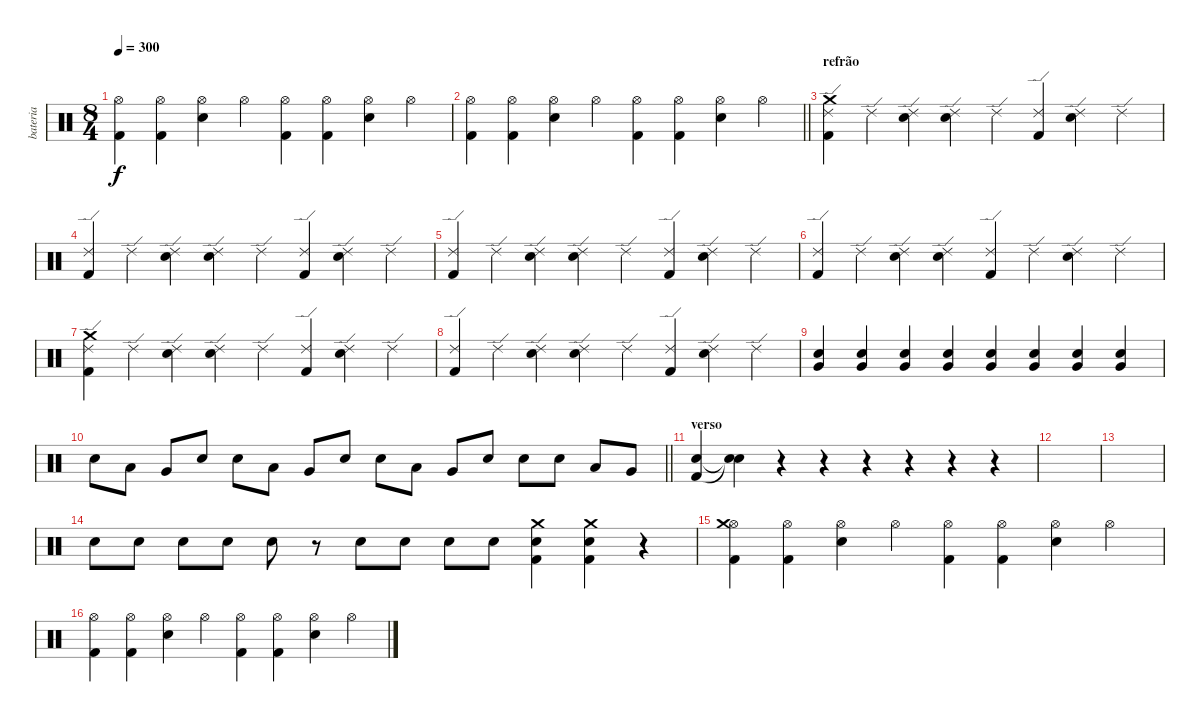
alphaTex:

\track ("bateria" "bateria") {instrument percussion}
\staff {score}
\articulation defaults
\ts (8 4)
\tempo 300
\clef neutral
\ks c
("Hi-Hat (open)" "Kick (hit) 2").4{dy f} ("Hi-Hat (open)" "Kick (hit) 2").4 ("Hi-Hat (open)" "Electric Snare (hit)").4 "Hi-Hat (open)".4 ("Hi-Hat (open)" "Kick (hit) 2").4 ("Hi-Hat (open)" "Kick (hit) 2").4 ("Hi-Hat (open)" "Electric Snare (hit)").4 "Hi-Hat (open)".4 |
\barLineRight lightlight
("Hi-Hat (open)" "Kick (hit) 2").4 ("Hi-Hat (open)" "Kick (hit) 2").4 ("Hi-Hat (open)" "Electric Snare (hit)").4 "Hi-Hat (open)".4 ("Hi-Hat (open)" "Kick (hit) 2").4 ("Hi-Hat (open)" "Kick (hit) 2").4 ("Hi-Hat (open)" "Electric Snare (hit)").4 "Hi-Hat (open)".4 |
\section ("" "refrão")
("Ride (edge) 2" "Kick (hit) 2" "Crash medium (hit)").4 "Ride (edge) 2".4 ("Ride (edge) 2" "Electric Snare (hit)").4 ("Ride (edge) 2" "Electric Snare (hit)").4 "Ride (edge) 2".4 ("Ride (edge) 2" "Kick (hit) 2").4 ("Ride (edge) 2" "Electric Snare (hit)").4 "Ride (edge) 2".4 |
("Ride (edge) 2" "Kick (hit) 2").4 "Ride (edge) 2".4 ("Ride (edge) 2" "Electric Snare (hit)").4 ("Ride (edge) 2" "Electric Snare (hit)").4 "Ride (edge) 2".4 ("Ride (edge) 2" "Kick (hit) 2").4 ("Ride (edge) 2" "Electric Snare (hit)").4 "Ride (edge) 2".4 |
("Ride (edge) 2" "Kick (hit) 2").4 "Ride (edge) 2".4 ("Ride (edge) 2" "Electric Snare (hit)").4 ("Ride (edge) 2" "Electric Snare (hit)").4 "Ride (edge) 2".4 ("Ride (edge) 2" "Kick (hit) 2").4 ("Ride (edge) 2" "Electric Snare (hit)").4 "Ride (edge) 2".4 |
("Ride (edge) 2" "Kick (hit) 2").4 "Ride (edge) 2".4 ("Ride (edge) 2" "Electric Snare (hit)").4 ("Ride (edge) 2" "Electric Snare (hit)").4 ("Ride (edge) 2" "Kick (hit) 2").4 "Ride (edge) 2".4 ("Ride (edge) 2" "Electric Snare (hit)").4 "Ride (edge) 2".4 |
("Ride (edge) 2" "Kick (hit) 2" "Crash medium (hit)").4 "Ride (edge) 2".4 ("Ride (edge) 2" "Electric Snare (hit)").4 ("Ride (edge) 2" "Electric Snare (hit)").4 "Ride (edge) 2".4 ("Ride (edge) 2" "Kick (hit) 2").4 ("Ride (edge) 2" "Electric Snare (hit)").4 "Ride (edge) 2".4 |
("Ride (edge) 2" "Kick (hit) 2").4 "Ride (edge) 2".4 ("Ride (edge) 2" "Electric Snare (hit)").4 ("Ride (edge) 2" "Electric Snare (hit)").4 "Ride (edge) 2".4 ("Ride (edge) 2" "Kick (hit) 2").4 ("Ride (edge) 2" "Electric Snare (hit)").4 "Ride (edge) 2".4 |
("Electric Snare (hit)" "Very Low Tom (hit)").4 ("Electric Snare (hit)" "Very Low Tom (hit)").4 ("Electric Snare (hit)" "Very Low Tom (hit)").4 ("Electric Snare (hit)" "Very Low Tom (hit)").4 ("Electric Snare (hit)" "Very Low Tom (hit)").4 ("Electric Snare (hit)" "Very Low Tom (hit)").4 ("Electric Snare (hit)" "Very Low Tom (hit)").4 ("Electric Snare (hit)" "Very Low Tom (hit)").4 |
\barLineRight lightlight "Electric Snare (hit)".8 "Low Tom (hit)".8 "Very Low Tom (hit)".8 "Electric Snare (hit)".8 "Electric Snare (hit)".8 "Low Tom (hit)".8 "Very Low Tom (hit)".8 "Electric Snare (hit)".8 "Electric Snare (hit)".8 "Low Tom (hit)".8 "Very Low Tom (hit)".8 "Electric Snare (hit)".8 "Electric Snare (hit)".8 "Electric Snare (hit)".8 "Low Tom (hit)".8 "Very Low Tom (hit)".8
|
\section ("" "verso")
("Electric Snare (hit)" "Kick (hit) 2").4 ("Snare (hit)"{t} "Snare (hit)"{t}).4 r.4 r.4 r.4 r.4 r.4 r.4 |
|
|
"Electric Snare (hit)".8 "Electric Snare (hit)".8 "Electric Snare (hit)".8 "Electric Snare (hit)".8 "Electric Snare (hit)".8 r.8 "Electric Snare (hit)".8 "Electric Snare (hit)".8 "Electric Snare (hit)".8 "Electric Snare (hit)".8 ("Electric Snare (hit)" "Kick (hit) 2" "Crash medium (hit)").4 ("Electric Snare (hit)" "Kick (hit) 2" "Crash medium (hit)").4 r.4 |
("Hi-Hat (open)" "Kick (hit) 2" "Crash medium (hit)").4 ("Hi-Hat (open)" "Kick (hit) 2").4 ("Hi-Hat (open)" "Electric Snare (hit)").4 "Hi-Hat (open)".4 ("Hi-Hat (open)" "Kick (hit) 2").4 ("Hi-Hat (open)" "Kick (hit) 2").4 ("Hi-Hat (open)" "Electric Snare (hit)").4 "Hi-Hat (open)".4 |
("Hi-Hat (open)" "Kick (hit) 2").4 ("Hi-Hat (open)" "Kick (hit) 2").4 ("Hi-Hat (open)" "Electric Snare (hit)").4 "Hi-Hat (open)".4 ("Hi-Hat (open)" "Kick (hit) 2").4 ("Hi-Hat (open)" "Kick (hit) 2").4 ("Hi-Hat (open)" "Electric Snare (hit)").4 "Hi-Hat (open)".4
